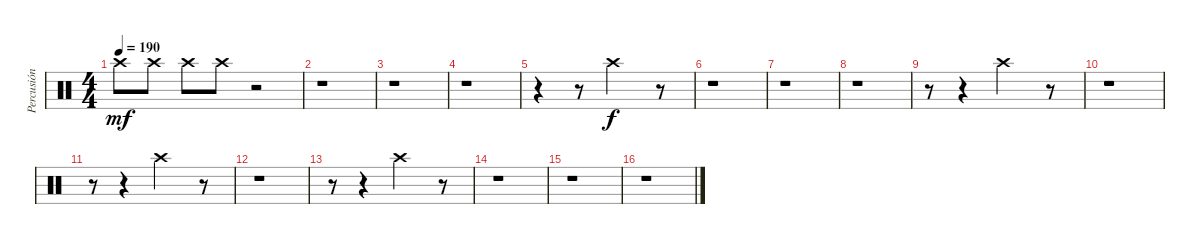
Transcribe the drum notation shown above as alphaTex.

\track ("Percusión" "Percusión") {instrument percussion}
\staff {score}
\articulation defaults
\ts (4 4)
\tempo 190
\clef neutral
\ks c "Crash high (hit)".8{dy mf} "Crash high (hit)".8 "Crash high (hit)".8 "Crash high (hit)".8
r.2 |
r.1 |
r.1 |
r.1 |
r.4 r.8 "Crash high (hit)".2{dy f} r.8 |
r.1 |
r.1 |
r.1 |
r.8 r.4 "Crash high (hit)".2 r.8 |
r.1 |
r.8 r.4 "Crash high (hit)".2 r.8 |
r.1 |
r.8 r.4 "Crash high (hit)".2 r.8 |
r.1 |
r.1 |
r.1
